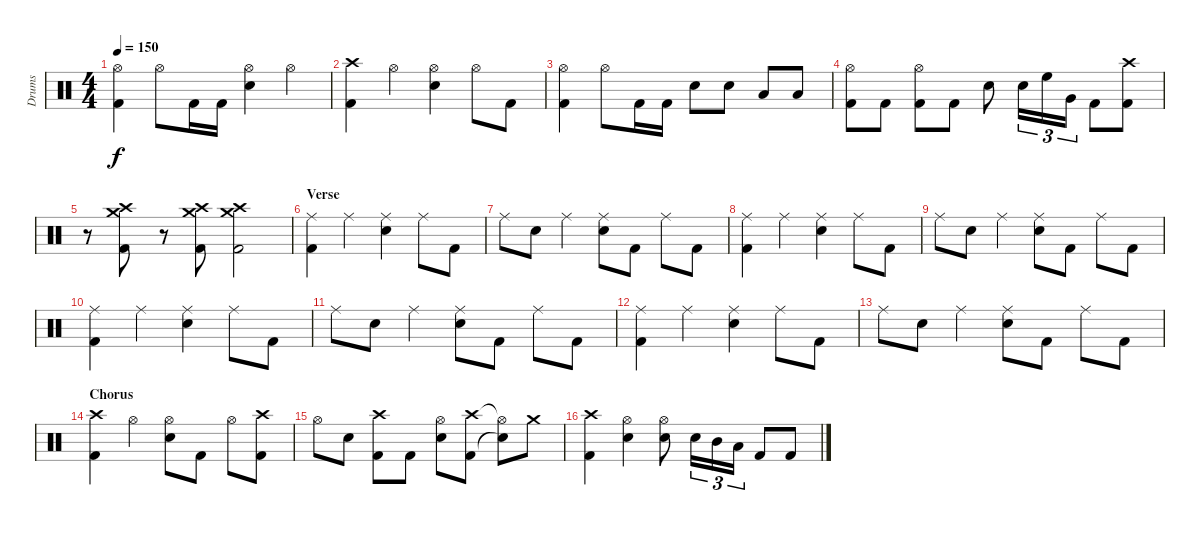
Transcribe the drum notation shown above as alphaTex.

\track ("Drums" "Drums") {instrument percussion}
\staff {score}
\articulation defaults
\ts (4 4)
\tempo 150
\clef neutral
\ks c
("Hi-Hat (open)" "Kick (hit) 2").4{dy f} "Hi-Hat (open)".8 "Kick (hit) 2".16 "Kick (hit) 2".16 ("Hi-Hat (open)" "Electric Snare (hit)").4 "Hi-Hat (open)".4 |
("Crash high (hit)" "Kick (hit) 2").4 "Hi-Hat (open)".4 ("Hi-Hat (open)" "Electric Snare (hit)").4 "Hi-Hat (open)".8 "Kick (hit) 2".8 |
("Hi-Hat (open)" "Kick (hit) 2").4 "Hi-Hat (open)".8 "Kick (hit) 2".16 "Kick (hit) 2".16 "Electric Snare (hit)".8 "Electric Snare (hit)".8 "Low Tom (hit)".8 "Low Tom (hit)".8 |
("Hi-Hat (open)" "Kick (hit) 2").8 "Kick (hit) 2".8 ("Hi-Hat (open)" "Kick (hit) 2").8 "Kick (hit) 2".8 "Electric Snare (hit)".8 "Electric Snare (hit)".16{tu (3 2)} "High Floor Tom (hit)".16{tu (3 2)} "Very Low Tom (hit)".16{tu (3 2)} "Kick (hit) 2".8 ("Crash high (hit)" "Kick (hit) 2").8 |
r.8 ("Crash high (hit)" "Crash medium (hit)" "Kick (hit) 2").8 r.8 ("Crash high (hit)" "Crash medium (hit)" "Kick (hit) 2").8 ("Crash high (hit)" "Crash medium (hit)" "Kick (hit) 2").2 |
\section ("" "Verse")
("Ride (middle)" "Kick (hit) 2").4 "Ride (middle)".4 ("Ride (middle)" "Electric Snare (hit)").4 "Ride (middle)".8 "Kick (hit) 2".8 |
"Ride (middle)".8 "Electric Snare (hit)".8 "Ride (middle)".4 ("Ride (middle)" "Electric Snare (hit)").8 "Kick (hit) 2".8 "Ride (middle)".8 "Kick (hit) 2".8 |
("Ride (middle)" "Kick (hit) 2").4 "Ride (middle)".4 ("Ride (middle)" "Electric Snare (hit)").4 "Ride (middle)".8 "Kick (hit) 2".8 |
"Ride (middle)".8 "Electric Snare (hit)".8 "Ride (middle)".4 ("Ride (middle)" "Electric Snare (hit)").8 "Kick (hit) 2".8 "Ride (middle)".8 "Kick (hit) 2".8 |
("Ride (middle)" "Kick (hit) 2").4 "Ride (middle)".4 ("Ride (middle)" "Electric Snare (hit)").4 "Ride (middle)".8 "Kick (hit) 2".8 |
"Ride (middle)".8 "Electric Snare (hit)".8 "Ride (middle)".4 ("Ride (middle)" "Electric Snare (hit)").8 "Kick (hit) 2".8 "Ride (middle)".8 "Kick (hit) 2".8 |
("Ride (middle)" "Kick (hit) 2").4 "Ride (middle)".4 ("Ride (middle)" "Electric Snare (hit)").4 "Ride (middle)".8 "Kick (hit) 2".8 |
"Ride (middle)".8 "Electric Snare (hit)".8 "Ride (middle)".4 ("Ride (middle)" "Electric Snare (hit)").8 "Kick (hit) 2".8 "Ride (middle)".8 "Kick (hit) 2".8 |
\section ("" "Chorus")
("Crash high (hit)" "Kick (hit) 2").4 "Hi-Hat (open)".4 ("Hi-Hat (open)" "Electric Snare (hit)").8 "Kick (hit) 2".8 "Hi-Hat (open)".8 ("Crash high (hit)" "Kick (hit) 2").8 |
"Hi-Hat (open)".8 "Electric Snare (hit)".8 ("Crash high (hit)" "Kick (hit) 2").8 "Kick (hit) 2".8 ("Hi-Hat (open)" "Electric Snare (hit)").8 ("Crash high (hit)" "Kick (hit) 2").8 ("Hi-Hat (open)"{t} "Snare (hit)"{t}).8 "Crash medium (hit)".8 |
("Crash high (hit)" "Kick (hit) 2").4 ("Hi-Hat (open)" "Electric Snare (hit)").4 ("Hi-Hat (open)" "Electric Snare (hit)").8 "Electric Snare (hit)".16{tu (3 2)} "Mid Tom (hit)".16{tu (3 2)} "Low Tom (hit)".16{tu (3 2)} "Kick (hit) 2".8 "Kick (hit) 2".8
